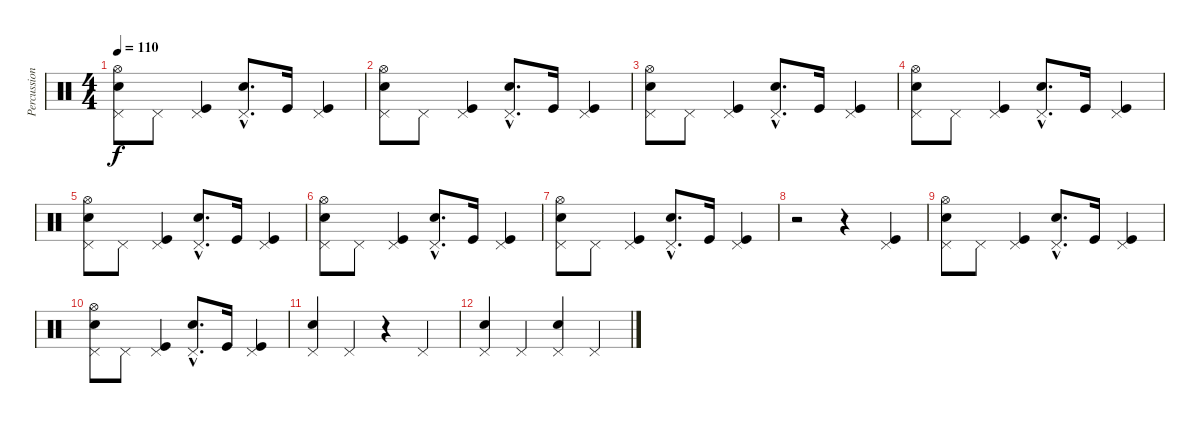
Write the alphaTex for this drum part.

\track ("Percussions" "Percussion") {instrument percussion}
\staff {score}
\articulation defaults
\ts (4 4)
\tempo 110
\clef neutral
\ks c
("Pedal Hi-Hat (hit)" "Hand Clap (hit)" "Hi-Hat (open)").8{dy f} "Pedal Hi-Hat (hit)".8 ("Pedal Hi-Hat (hit)" "Kick (hit)").4 ("Pedal Hi-Hat (hit)"{hac} "Hand Clap (hit)"{hac}).8{d} "Kick (hit)".16 ("Pedal Hi-Hat (hit)" "Kick (hit)").4 |
("Pedal Hi-Hat (hit)" "Hand Clap (hit)" "Hi-Hat (open)").8 "Pedal Hi-Hat (hit)".8 ("Pedal Hi-Hat (hit)" "Kick (hit)").4 ("Pedal Hi-Hat (hit)"{hac} "Hand Clap (hit)"{hac}).8{d} "Kick (hit)".16 ("Pedal Hi-Hat (hit)" "Kick (hit)").4 |
("Pedal Hi-Hat (hit)" "Hand Clap (hit)" "Hi-Hat (open)").8 "Pedal Hi-Hat (hit)".8 ("Pedal Hi-Hat (hit)" "Kick (hit)").4 ("Pedal Hi-Hat (hit)"{hac} "Hand Clap (hit)"{hac}).8{d} "Kick (hit)".16 ("Pedal Hi-Hat (hit)" "Kick (hit)").4 |
("Pedal Hi-Hat (hit)" "Hand Clap (hit)" "Hi-Hat (open)").8 "Pedal Hi-Hat (hit)".8 ("Pedal Hi-Hat (hit)" "Kick (hit)").4 ("Pedal Hi-Hat (hit)"{hac} "Hand Clap (hit)"{hac}).8{d} "Kick (hit)".16 ("Pedal Hi-Hat (hit)" "Kick (hit)").4 |
("Pedal Hi-Hat (hit)" "Hand Clap (hit)" "Hi-Hat (open)").8 "Pedal Hi-Hat (hit)".8 ("Pedal Hi-Hat (hit)" "Kick (hit)").4 ("Pedal Hi-Hat (hit)"{hac} "Hand Clap (hit)"{hac}).8{d} "Kick (hit)".16 ("Pedal Hi-Hat (hit)" "Kick (hit)").4 |
("Pedal Hi-Hat (hit)" "Hand Clap (hit)" "Hi-Hat (open)").8 "Pedal Hi-Hat (hit)".8 ("Pedal Hi-Hat (hit)" "Kick (hit)").4 ("Pedal Hi-Hat (hit)"{hac} "Hand Clap (hit)"{hac}).8{d} "Kick (hit)".16 ("Pedal Hi-Hat (hit)" "Kick (hit)").4 |
("Pedal Hi-Hat (hit)" "Hand Clap (hit)" "Hi-Hat (open)").8 "Pedal Hi-Hat (hit)".8 ("Pedal Hi-Hat (hit)" "Kick (hit)").4 ("Pedal Hi-Hat (hit)"{hac} "Hand Clap (hit)"{hac}).8{d} "Kick (hit)".16 ("Pedal Hi-Hat (hit)" "Kick (hit)").4 |
r.2 r.4 ("Pedal Hi-Hat (hit)" "Kick (hit)").4 |
("Pedal Hi-Hat (hit)" "Hand Clap (hit)" "Hi-Hat (open)").8 "Pedal Hi-Hat (hit)".8 ("Pedal Hi-Hat (hit)" "Kick (hit)").4 ("Pedal Hi-Hat (hit)"{hac} "Hand Clap (hit)"{hac}).8{d} "Kick (hit)".16 ("Pedal Hi-Hat (hit)" "Kick (hit)").4 |
("Pedal Hi-Hat (hit)" "Hand Clap (hit)" "Hi-Hat (open)").8 "Pedal Hi-Hat (hit)".8 ("Pedal Hi-Hat (hit)" "Kick (hit)").4 ("Pedal Hi-Hat (hit)"{hac} "Hand Clap (hit)"{hac}).8{d} "Kick (hit)".16 ("Pedal Hi-Hat (hit)" "Kick (hit)").4 |
("Pedal Hi-Hat (hit)" "Hand Clap (hit)").4{volume 9} "Pedal Hi-Hat (hit)".4 r.4{volume 6} "Pedal Hi-Hat (hit)".4 |
("Pedal Hi-Hat (hit)" "Hand Clap (hit)").4{volume 4} "Pedal Hi-Hat (hit)".4 ("Pedal Hi-Hat (hit)" "Hand Clap (hit)").4{volume 2} "Pedal Hi-Hat (hit)".4
